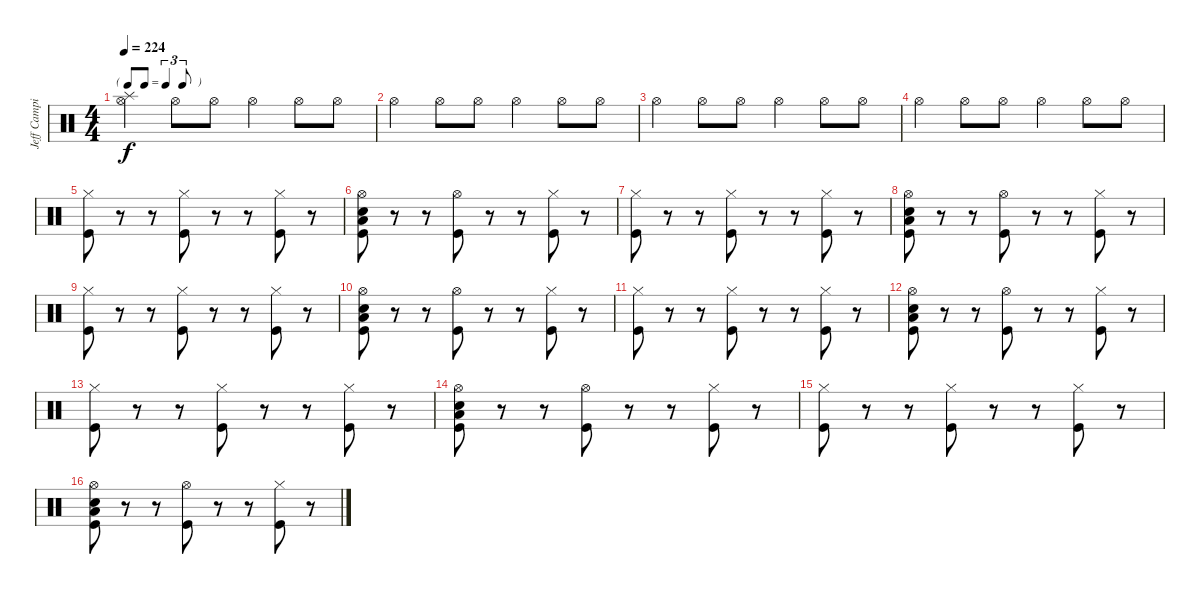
\track ("Jeff Campitelli" "Jeff Campi") {instrument percussion}
\staff {score}
\articulation defaults
\ts (4 4)
\tf triplet8th
\tempo 224
\clef neutral
\ks c
("Splash (hit)" "Hi-Hat (open)").4{dy f} "Hi-Hat (open)".8 "Hi-Hat (open)".8 "Hi-Hat (open)".4 "Hi-Hat (open)".8 "Hi-Hat (open)".8 |
"Hi-Hat (open)".4 "Hi-Hat (open)".8 "Hi-Hat (open)".8 "Hi-Hat (open)".4 "Hi-Hat (open)".8 "Hi-Hat (open)".8 |
"Hi-Hat (open)".4 "Hi-Hat (open)".8 "Hi-Hat (open)".8 "Hi-Hat (open)".4 "Hi-Hat (open)".8 "Hi-Hat (open)".8 |
"Hi-Hat (open)".4 "Hi-Hat (open)".8 "Hi-Hat (open)".8 "Hi-Hat (open)".4 "Hi-Hat (open)".8 "Hi-Hat (open)".8 |
("Hi-Hat (closed)" "Kick (hit)").8 r.8 r.8 ("Hi-Hat (closed)" "Kick (hit)").8 r.8 r.8 ("Hi-Hat (closed)" "Kick (hit)").8 r.8 |
("Snare (hit) 2" "Hi-Hat (open)" "Low Floor Tom (hit)" "Kick (hit)").8 r.8 r.8 ("Hi-Hat (open)" "Kick (hit)").8 r.8 r.8 ("Hi-Hat (closed)" "Kick (hit)").8 r.8 |
("Hi-Hat (closed)" "Kick (hit)").8 r.8 r.8 ("Hi-Hat (closed)" "Kick (hit)").8 r.8 r.8 ("Hi-Hat (closed)" "Kick (hit)").8 r.8 |
("Snare (hit) 2" "Hi-Hat (open)" "Low Floor Tom (hit)" "Kick (hit)").8 r.8 r.8 ("Hi-Hat (open)" "Kick (hit)").8 r.8 r.8 ("Hi-Hat (closed)" "Kick (hit)").8 r.8 |
("Hi-Hat (closed)" "Kick (hit)").8 r.8 r.8 ("Hi-Hat (closed)" "Kick (hit)").8 r.8 r.8 ("Hi-Hat (closed)" "Kick (hit)").8 r.8 |
("Snare (hit) 2" "Hi-Hat (open)" "Low Floor Tom (hit)" "Kick (hit)").8 r.8 r.8 ("Hi-Hat (open)" "Kick (hit)").8 r.8 r.8 ("Hi-Hat (closed)" "Kick (hit)").8 r.8 |
("Hi-Hat (closed)" "Kick (hit)").8 r.8 r.8 ("Hi-Hat (closed)" "Kick (hit)").8 r.8 r.8 ("Hi-Hat (closed)" "Kick (hit)").8 r.8 |
("Snare (hit) 2" "Hi-Hat (open)" "Low Floor Tom (hit)" "Kick (hit)").8 r.8 r.8 ("Hi-Hat (open)" "Kick (hit)").8 r.8 r.8 ("Hi-Hat (closed)" "Kick (hit)").8 r.8 |
("Hi-Hat (closed)" "Kick (hit)").8 r.8 r.8 ("Hi-Hat (closed)" "Kick (hit)").8 r.8 r.8 ("Hi-Hat (closed)" "Kick (hit)").8 r.8 |
("Snare (hit) 2" "Hi-Hat (open)" "Low Floor Tom (hit)" "Kick (hit)").8 r.8 r.8 ("Hi-Hat (open)" "Kick (hit)").8 r.8 r.8 ("Hi-Hat (closed)" "Kick (hit)").8 r.8 |
("Hi-Hat (closed)" "Kick (hit)").8 r.8 r.8 ("Hi-Hat (closed)" "Kick (hit)").8 r.8 r.8 ("Hi-Hat (closed)" "Kick (hit)").8 r.8 |
("Snare (hit) 2" "Hi-Hat (open)" "Low Floor Tom (hit)" "Kick (hit)").8 r.8 r.8 ("Hi-Hat (open)" "Kick (hit)").8 r.8 r.8 ("Hi-Hat (closed)" "Kick (hit)").8 r.8
